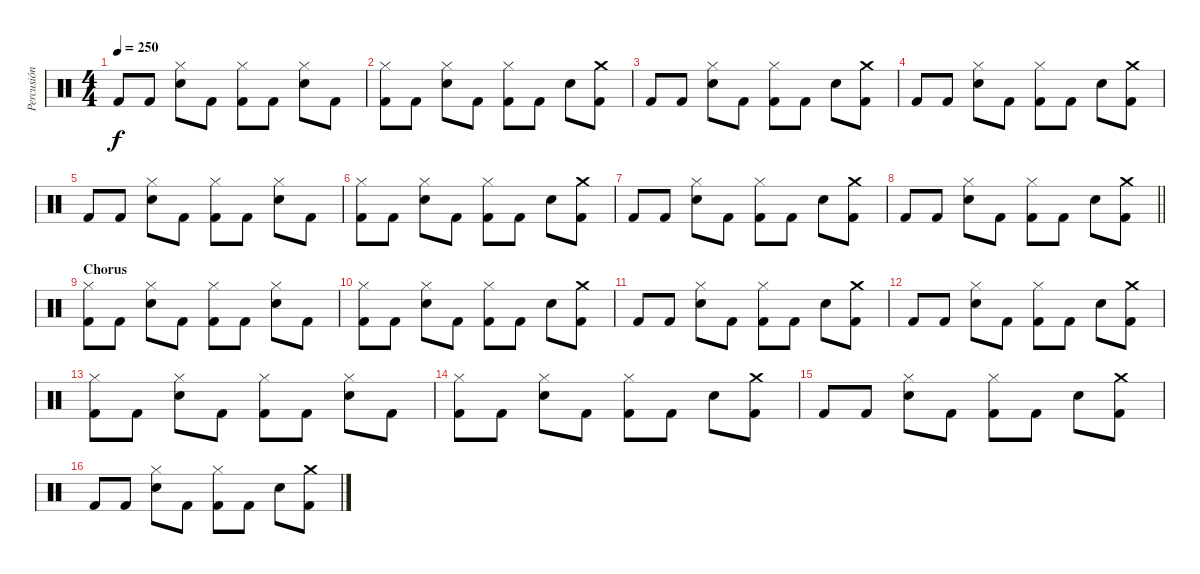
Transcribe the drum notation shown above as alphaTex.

\track ("Percusión" "Percusión") {instrument percussion}
\staff {score}
\articulation defaults
\ts (4 4)
\tempo 250
\clef neutral
\ks c "Kick (hit) 2".8{dy f} "Kick (hit) 2".8
("Electric Snare (hit)" "Hi-Hat (closed)").8 "Kick (hit) 2".8 ("Hi-Hat (closed)" "Kick (hit) 2").8 "Kick (hit) 2".8 ("Electric Snare (hit)" "Hi-Hat (closed)").8 "Kick (hit) 2".8 |
("Hi-Hat (closed)" "Kick (hit) 2").8 "Kick (hit) 2".8 ("Electric Snare (hit)" "Hi-Hat (closed)").8 "Kick (hit) 2".8 ("Hi-Hat (closed)" "Kick (hit) 2").8 "Kick (hit) 2".8 "Electric Snare (hit)".8 ("Crash medium (hit)" "Kick (hit) 2").8 |
"Kick (hit) 2".8 "Kick (hit) 2".8 ("Electric Snare (hit)" "Hi-Hat (closed)").8 "Kick (hit) 2".8 ("Hi-Hat (closed)" "Kick (hit) 2").8 "Kick (hit) 2".8 "Electric Snare (hit)".8 ("Crash medium (hit)" "Kick (hit) 2").8 |
"Kick (hit) 2".8 "Kick (hit) 2".8 ("Electric Snare (hit)" "Hi-Hat (closed)").8 "Kick (hit) 2".8 ("Hi-Hat (closed)" "Kick (hit) 2").8 "Kick (hit) 2".8 "Electric Snare (hit)".8 ("Crash medium (hit)" "Kick (hit) 2").8 |
"Kick (hit) 2".8 "Kick (hit) 2".8 ("Electric Snare (hit)" "Hi-Hat (closed)").8 "Kick (hit) 2".8 ("Hi-Hat (closed)" "Kick (hit) 2").8 "Kick (hit) 2".8 ("Electric Snare (hit)" "Hi-Hat (closed)").8 "Kick (hit) 2".8 |
("Hi-Hat (closed)" "Kick (hit) 2").8 "Kick (hit) 2".8 ("Electric Snare (hit)" "Hi-Hat (closed)").8 "Kick (hit) 2".8 ("Hi-Hat (closed)" "Kick (hit) 2").8 "Kick (hit) 2".8 "Electric Snare (hit)".8 ("Crash medium (hit)" "Kick (hit) 2").8 |
"Kick (hit) 2".8 "Kick (hit) 2".8 ("Electric Snare (hit)" "Hi-Hat (closed)").8 "Kick (hit) 2".8 ("Hi-Hat (closed)" "Kick (hit) 2").8 "Kick (hit) 2".8 "Electric Snare (hit)".8 ("Crash medium (hit)" "Kick (hit) 2").8 |
\barLineRight lightlight "Kick (hit) 2".8 "Kick (hit) 2".8
("Electric Snare (hit)" "Hi-Hat (closed)").8 "Kick (hit) 2".8 ("Hi-Hat (closed)" "Kick (hit) 2").8 "Kick (hit) 2".8 "Electric Snare (hit)".8 ("Crash medium (hit)" "Kick (hit) 2").8 |
\section ("" "Chorus")
("Hi-Hat (closed)" "Kick (hit) 2").8 "Kick (hit) 2".8 ("Electric Snare (hit)" "Hi-Hat (closed)").8 "Kick (hit) 2".8 ("Hi-Hat (closed)" "Kick (hit) 2").8 "Kick (hit) 2".8 ("Electric Snare (hit)" "Hi-Hat (closed)").8 "Kick (hit) 2".8 |
("Hi-Hat (closed)" "Kick (hit) 2").8 "Kick (hit) 2".8 ("Electric Snare (hit)" "Hi-Hat (closed)").8 "Kick (hit) 2".8 ("Hi-Hat (closed)" "Kick (hit) 2").8 "Kick (hit) 2".8 "Electric Snare (hit)".8 ("Crash medium (hit)" "Kick (hit) 2").8 |
"Kick (hit) 2".8 "Kick (hit) 2".8 ("Electric Snare (hit)" "Hi-Hat (closed)").8 "Kick (hit) 2".8 ("Hi-Hat (closed)" "Kick (hit) 2").8 "Kick (hit) 2".8 "Electric Snare (hit)".8 ("Crash medium (hit)" "Kick (hit) 2").8 |
"Kick (hit) 2".8 "Kick (hit) 2".8 ("Electric Snare (hit)" "Hi-Hat (closed)").8 "Kick (hit) 2".8 ("Hi-Hat (closed)" "Kick (hit) 2").8 "Kick (hit) 2".8 "Electric Snare (hit)".8 ("Crash medium (hit)" "Kick (hit) 2").8 |
("Hi-Hat (closed)" "Kick (hit) 2").8 "Kick (hit) 2".8 ("Electric Snare (hit)" "Hi-Hat (closed)").8 "Kick (hit) 2".8 ("Hi-Hat (closed)" "Kick (hit) 2").8 "Kick (hit) 2".8 ("Electric Snare (hit)" "Hi-Hat (closed)").8 "Kick (hit) 2".8 |
("Hi-Hat (closed)" "Kick (hit) 2").8 "Kick (hit) 2".8 ("Electric Snare (hit)" "Hi-Hat (closed)").8 "Kick (hit) 2".8 ("Hi-Hat (closed)" "Kick (hit) 2").8 "Kick (hit) 2".8 "Electric Snare (hit)".8 ("Crash medium (hit)" "Kick (hit) 2").8 |
"Kick (hit) 2".8 "Kick (hit) 2".8 ("Electric Snare (hit)" "Hi-Hat (closed)").8 "Kick (hit) 2".8 ("Hi-Hat (closed)" "Kick (hit) 2").8 "Kick (hit) 2".8 "Electric Snare (hit)".8 ("Crash medium (hit)" "Kick (hit) 2").8 |
"Kick (hit) 2".8 "Kick (hit) 2".8 ("Electric Snare (hit)" "Hi-Hat (closed)").8 "Kick (hit) 2".8 ("Hi-Hat (closed)" "Kick (hit) 2").8 "Kick (hit) 2".8 "Electric Snare (hit)".8 ("Crash medium (hit)" "Kick (hit) 2").8
